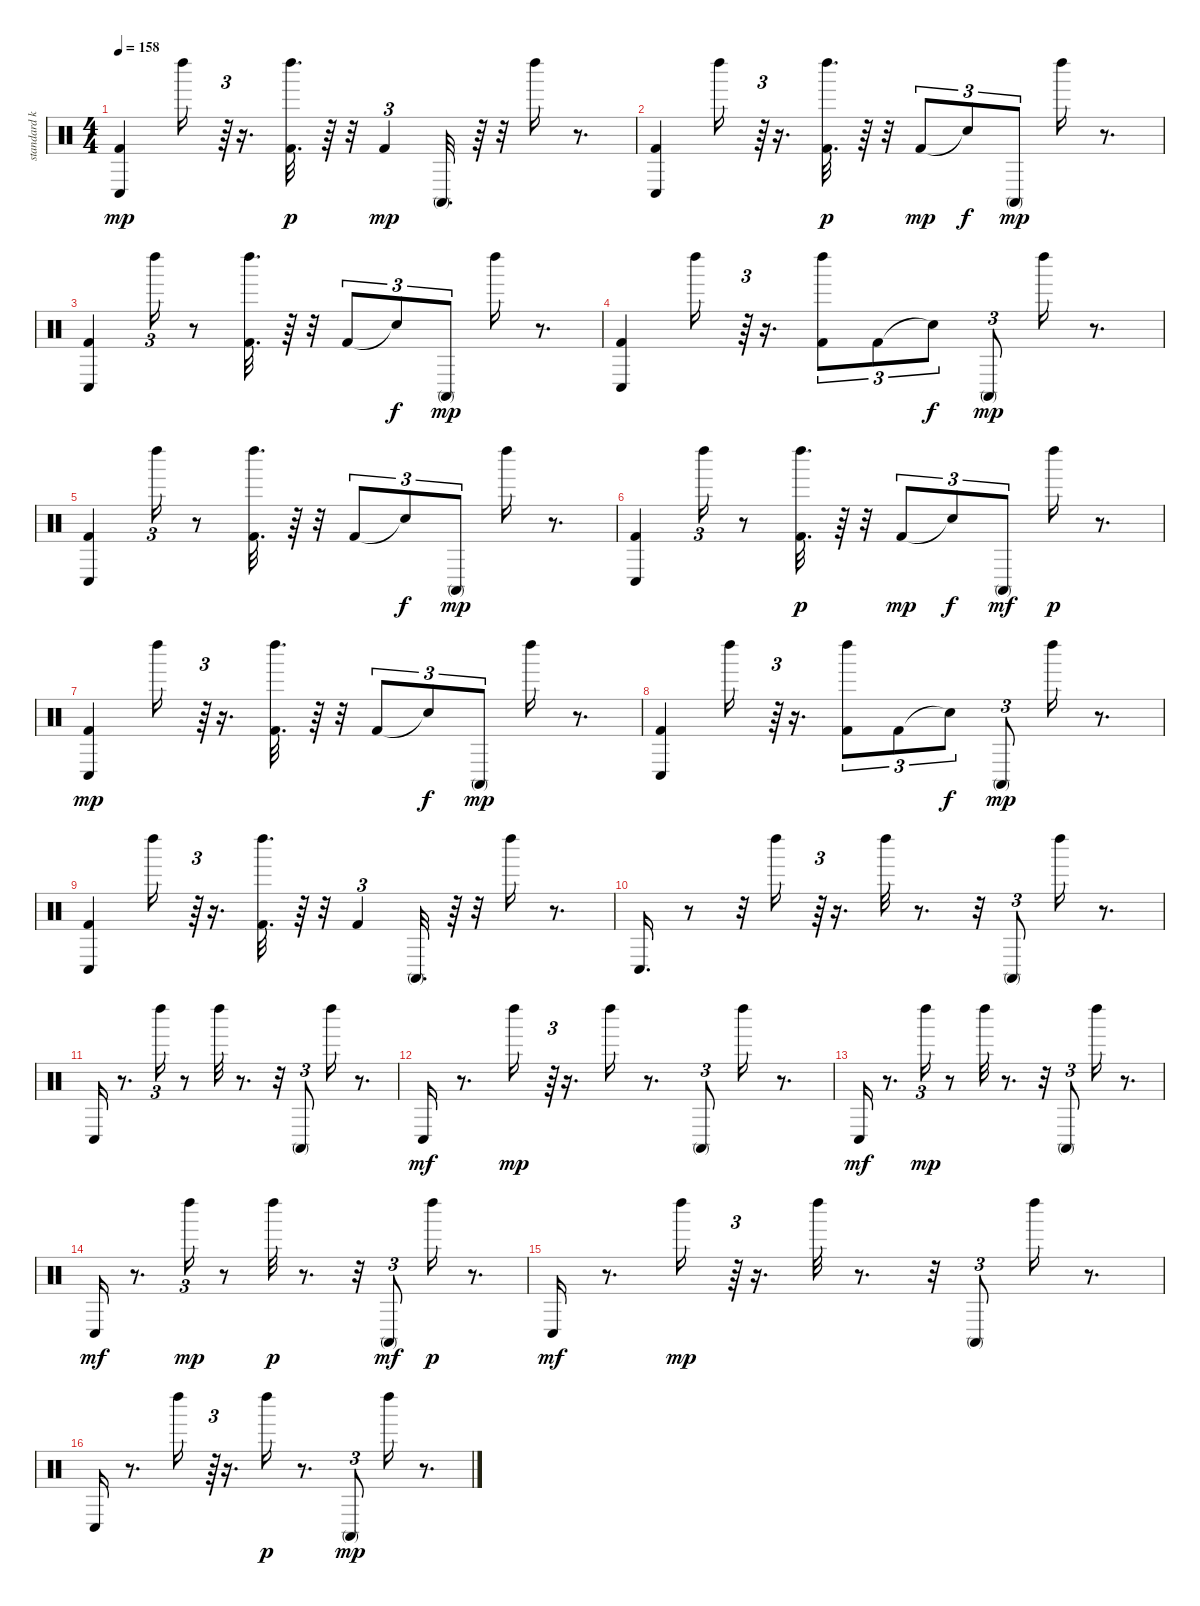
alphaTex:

\track ("standard kit" "standard k") {instrument percussion}
\staff {score}
\articulation defaults
\ts (4 4)
\tempo 158
\clef neutral
\ks c
("Conga low (hit)" "Kick (hit) 2").4{dy mp} "Left Maraca (hit)".16 r.64{tu (3 2)} r.16{d} ("Left Maraca (hit)" "Kick (hit) 2").32{d dy p} r.64 r.32 "Kick (hit) 2".4{tu (3 2) dy mp} "Conga high (mute)".32{d} r.64 r.32 "Left Maraca (hit)".16 r.8{d} |
("Conga low (hit)" "Kick (hit) 2").4 "Left Maraca (hit)".16 r.64{tu (3 2)} r.16{d} ("Left Maraca (hit)" "Kick (hit) 2").32{d dy p} r.64 r.32 "Kick (hit) 2".8{tu (3 2) dy mp} "Snare (hit)"{t}.8{tu (3 2) dy f} "Conga high (mute)".8{tu (3 2) dy mp} "Left Maraca (hit)".16 r.8{d} |
("Conga low (hit)" "Kick (hit) 2").4 "Left Maraca (hit)".16{tu (3 2)} r.8 ("Left Maraca (hit)" "Kick (hit) 2").32{d} r.64 r.32 "Kick (hit) 2".8{tu (3 2)} "Snare (hit)"{t}.8{tu (3 2) dy f} "Conga high (mute)".8{tu (3 2) dy mp} "Left Maraca (hit)".16 r.8{d} |
("Conga low (hit)" "Kick (hit) 2").4 "Left Maraca (hit)".16 r.64{tu (3 2)} r.16{d} ("Left Maraca (hit)" "Kick (hit) 2").8{tu (3 2)} "Kick (hit) 2".8{tu (3 2)} "Snare (hit)"{t}.8{tu (3 2) dy f} "Conga high (mute)".8{tu (3 2) dy mp} "Left Maraca (hit)".16 r.8{d} |
("Conga low (hit)" "Kick (hit) 2").4 "Left Maraca (hit)".16{tu (3 2)} r.8 ("Left Maraca (hit)" "Kick (hit) 2").32{d} r.64 r.32 "Kick (hit) 2".8{tu (3 2)} "Snare (hit)"{t}.8{tu (3 2) dy f} "Conga high (mute)".8{tu (3 2) dy mp} "Left Maraca (hit)".16 r.8{d} |
("Conga low (hit)" "Kick (hit) 2").4 "Left Maraca (hit)".16{tu (3 2)} r.8 ("Left Maraca (hit)" "Kick (hit) 2").32{d dy p} r.64 r.32 "Kick (hit) 2".8{tu (3 2) dy mp} "Snare (hit)"{t}.8{tu (3 2) dy f} "Conga high (mute)".8{tu (3 2) dy mf} "Left Maraca (hit)".16{dy p} r.8{d} |
("Conga low (hit)" "Kick (hit) 2").4{dy mp} "Left Maraca (hit)".16 r.64{tu (3 2)} r.16{d} ("Left Maraca (hit)" "Kick (hit) 2").32{d} r.64 r.32 "Kick (hit) 2".8{tu (3 2)} "Snare (hit)"{t}.8{tu (3 2) dy f} "Conga high (mute)".8{tu (3 2) dy mp} "Left Maraca (hit)".16 r.8{d} |
("Conga low (hit)" "Kick (hit) 2").4 "Left Maraca (hit)".16 r.64{tu (3 2)} r.16{d} ("Left Maraca (hit)" "Kick (hit) 2").8{tu (3 2)} "Kick (hit) 2".8{tu (3 2)} "Snare (hit)"{t}.8{tu (3 2) dy f} "Conga high (mute)".8{tu (3 2) dy mp} "Left Maraca (hit)".16 r.8{d} |
("Conga low (hit)" "Kick (hit) 2").4 "Left Maraca (hit)".16 r.64{tu (3 2)} r.16{d} ("Left Maraca (hit)" "Kick (hit) 2").32{d} r.64 r.32 "Kick (hit) 2".4{tu (3 2)} "Conga high (mute)".32{d} r.64 r.32 "Left Maraca (hit)".16 r.8{d} |
"Conga low (hit)".16{d} r.8 r.32 "Left Maraca (hit)".16 r.64{tu (3 2)} r.16{d} "Left Maraca (hit)".32 r.8{d} r.32 "Conga high (mute)".8{tu (3 2)} "Left Maraca (hit)".16 r.8{d} |
"Conga low (hit)".16 r.8{d} "Left Maraca (hit)".16{tu (3 2)} r.8 "Left Maraca (hit)".32 r.8{d} r.32 "Conga high (mute)".8{tu (3 2)} "Left Maraca (hit)".16 r.8{d} |
"Conga low (hit)".16{dy mf} r.8{d} "Left Maraca (hit)".16{dy mp} r.64{tu (3 2)} r.16{d} "Left Maraca (hit)".16 r.8{d} "Conga high (mute)".8{tu (3 2)} "Left Maraca (hit)".16 r.8{d} |
"Conga low (hit)".16{dy mf} r.8{d} "Left Maraca (hit)".16{tu (3 2) dy mp} r.8 "Left Maraca (hit)".32 r.8{d} r.32 "Conga high (mute)".8{tu (3 2)} "Left Maraca (hit)".16 r.8{d} |
"Conga low (hit)".16{dy mf} r.8{d} "Left Maraca (hit)".16{tu (3 2) dy mp} r.8 "Left Maraca (hit)".32{dy p} r.8{d} r.32 "Conga high (mute)".8{tu (3 2) dy mf} "Left Maraca (hit)".16{dy p} r.8{d} |
"Conga low (hit)".16{dy mf} r.8{d} "Left Maraca (hit)".16{dy mp} r.64{tu (3 2)} r.16{d} "Left Maraca (hit)".32 r.8{d} r.32 "Conga high (mute)".8{tu (3 2)} "Left Maraca (hit)".16 r.8{d} |
"Conga low (hit)".16 r.8{d} "Left Maraca (hit)".16 r.64{tu (3 2)} r.16{d} "Left Maraca (hit)".16{dy p} r.8{d} "Conga high (mute)".8{tu (3 2) dy mp} "Left Maraca (hit)".16 r.8{d}
